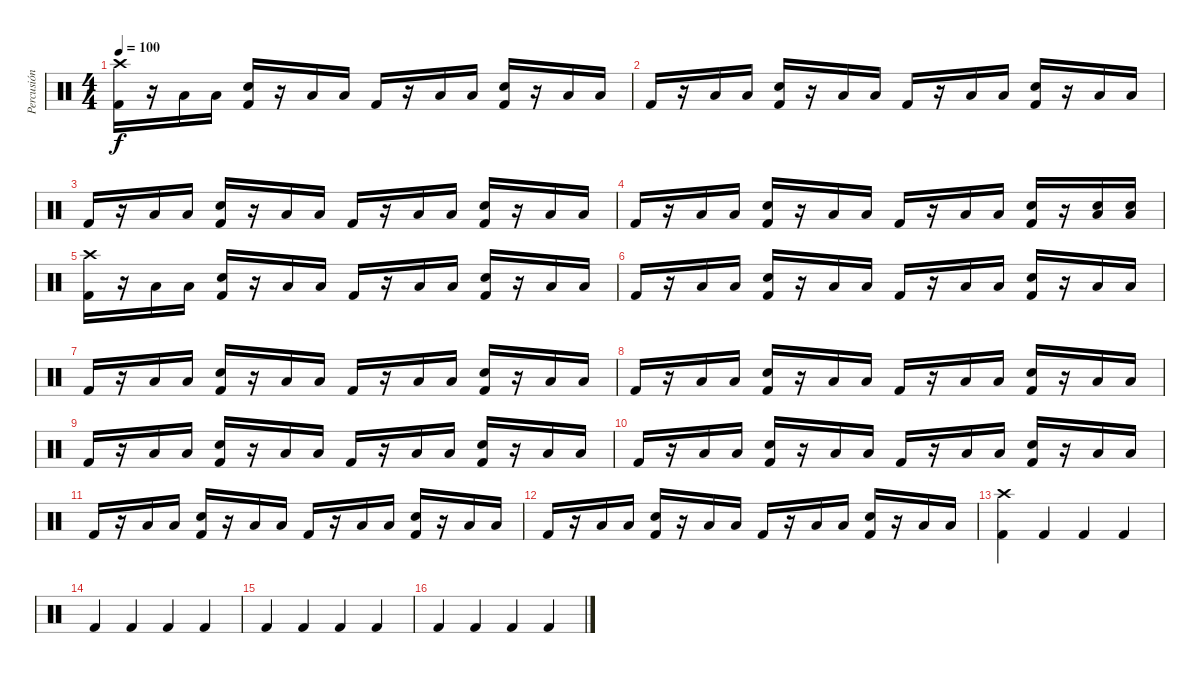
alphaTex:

\track ("Percusión" "Percusión") {instrument percussion}
\staff {score}
\articulation defaults
\ts (4 4)
\tempo 100
\clef neutral
\ks c
("Kick (hit) 2" "Crash high (hit)").16{dy f} r.16 "Low Tom (hit)".16 "Low Tom (hit)".16 ("Kick (hit) 2" "Snare (hit) 2").16 r.16 "Low Tom (hit)".16 "Low Tom (hit)".16 "Kick (hit) 2".16 r.16 "Low Tom (hit)".16 "Low Tom (hit)".16 ("Kick (hit) 2" "Snare (hit) 2").16 r.16 "Low Tom (hit)".16 "Low Tom (hit)".16 |
"Kick (hit) 2".16 r.16 "Low Tom (hit)".16 "Low Tom (hit)".16 ("Kick (hit) 2" "Snare (hit) 2").16 r.16 "Low Tom (hit)".16 "Low Tom (hit)".16 "Kick (hit) 2".16 r.16 "Low Tom (hit)".16 "Low Tom (hit)".16 ("Kick (hit) 2" "Snare (hit) 2").16 r.16 "Low Tom (hit)".16 "Low Tom (hit)".16 |
"Kick (hit) 2".16 r.16 "Low Tom (hit)".16 "Low Tom (hit)".16 ("Kick (hit) 2" "Snare (hit) 2").16 r.16 "Low Tom (hit)".16 "Low Tom (hit)".16 "Kick (hit) 2".16 r.16 "Low Tom (hit)".16 "Low Tom (hit)".16 ("Kick (hit) 2" "Snare (hit) 2").16 r.16 "Low Tom (hit)".16 "Low Tom (hit)".16 |
"Kick (hit) 2".16 r.16 "Low Tom (hit)".16 "Low Tom (hit)".16 ("Kick (hit) 2" "Snare (hit) 2").16 r.16 "Low Tom (hit)".16 "Low Tom (hit)".16 "Kick (hit) 2".16 r.16 "Low Tom (hit)".16 "Low Tom (hit)".16 ("Kick (hit) 2" "Snare (hit) 2").16 r.16 ("Low Tom (hit)" "Snare (hit) 2").16 ("Low Tom (hit)" "Snare (hit) 2").16 |
("Kick (hit) 2" "Crash high (hit)").16 r.16 "Low Tom (hit)".16 "Low Tom (hit)".16 ("Kick (hit) 2" "Snare (hit) 2").16 r.16 "Low Tom (hit)".16 "Low Tom (hit)".16 "Kick (hit) 2".16 r.16 "Low Tom (hit)".16 "Low Tom (hit)".16 ("Kick (hit) 2" "Snare (hit) 2").16 r.16 "Low Tom (hit)".16 "Low Tom (hit)".16 |
"Kick (hit) 2".16 r.16 "Low Tom (hit)".16 "Low Tom (hit)".16 ("Kick (hit) 2" "Snare (hit) 2").16 r.16 "Low Tom (hit)".16 "Low Tom (hit)".16 "Kick (hit) 2".16 r.16 "Low Tom (hit)".16 "Low Tom (hit)".16 ("Kick (hit) 2" "Snare (hit) 2").16 r.16 "Low Tom (hit)".16 "Low Tom (hit)".16 |
"Kick (hit) 2".16 r.16 "Low Tom (hit)".16 "Low Tom (hit)".16 ("Kick (hit) 2" "Snare (hit) 2").16 r.16 "Low Tom (hit)".16 "Low Tom (hit)".16 "Kick (hit) 2".16 r.16 "Low Tom (hit)".16 "Low Tom (hit)".16 ("Kick (hit) 2" "Snare (hit) 2").16 r.16 "Low Tom (hit)".16 "Low Tom (hit)".16 |
"Kick (hit) 2".16 r.16 "Low Tom (hit)".16 "Low Tom (hit)".16 ("Kick (hit) 2" "Snare (hit) 2").16 r.16 "Low Tom (hit)".16 "Low Tom (hit)".16 "Kick (hit) 2".16 r.16 "Low Tom (hit)".16 "Low Tom (hit)".16 ("Kick (hit) 2" "Snare (hit) 2").16 r.16 "Low Tom (hit)".16 "Low Tom (hit)".16 |
"Kick (hit) 2".16 r.16 "Low Tom (hit)".16 "Low Tom (hit)".16 ("Kick (hit) 2" "Snare (hit) 2").16 r.16 "Low Tom (hit)".16 "Low Tom (hit)".16 "Kick (hit) 2".16 r.16 "Low Tom (hit)".16 "Low Tom (hit)".16 ("Kick (hit) 2" "Snare (hit) 2").16 r.16 "Low Tom (hit)".16 "Low Tom (hit)".16 |
"Kick (hit) 2".16 r.16 "Low Tom (hit)".16 "Low Tom (hit)".16 ("Kick (hit) 2" "Snare (hit) 2").16 r.16 "Low Tom (hit)".16 "Low Tom (hit)".16 "Kick (hit) 2".16 r.16 "Low Tom (hit)".16 "Low Tom (hit)".16 ("Kick (hit) 2" "Snare (hit) 2").16 r.16 "Low Tom (hit)".16 "Low Tom (hit)".16 |
"Kick (hit) 2".16 r.16 "Low Tom (hit)".16 "Low Tom (hit)".16 ("Kick (hit) 2" "Snare (hit) 2").16 r.16 "Low Tom (hit)".16 "Low Tom (hit)".16 "Kick (hit) 2".16 r.16 "Low Tom (hit)".16 "Low Tom (hit)".16 ("Kick (hit) 2" "Snare (hit) 2").16 r.16 "Low Tom (hit)".16 "Low Tom (hit)".16 |
"Kick (hit) 2".16 r.16 "Low Tom (hit)".16 "Low Tom (hit)".16 ("Kick (hit) 2" "Snare (hit) 2").16 r.16 "Low Tom (hit)".16 "Low Tom (hit)".16 "Kick (hit) 2".16 r.16 "Low Tom (hit)".16 "Low Tom (hit)".16 ("Kick (hit) 2" "Snare (hit) 2").16 r.16 "Low Tom (hit)".16 "Low Tom (hit)".16 |
("Kick (hit) 2" "Crash high (hit)").4 "Kick (hit) 2".4 "Kick (hit) 2".4 "Kick (hit) 2".4 |
"Kick (hit) 2".4 "Kick (hit) 2".4 "Kick (hit) 2".4 "Kick (hit) 2".4 |
"Kick (hit) 2".4 "Kick (hit) 2".4 "Kick (hit) 2".4 "Kick (hit) 2".4 |
"Kick (hit) 2".4 "Kick (hit) 2".4 "Kick (hit) 2".4 "Kick (hit) 2".4
